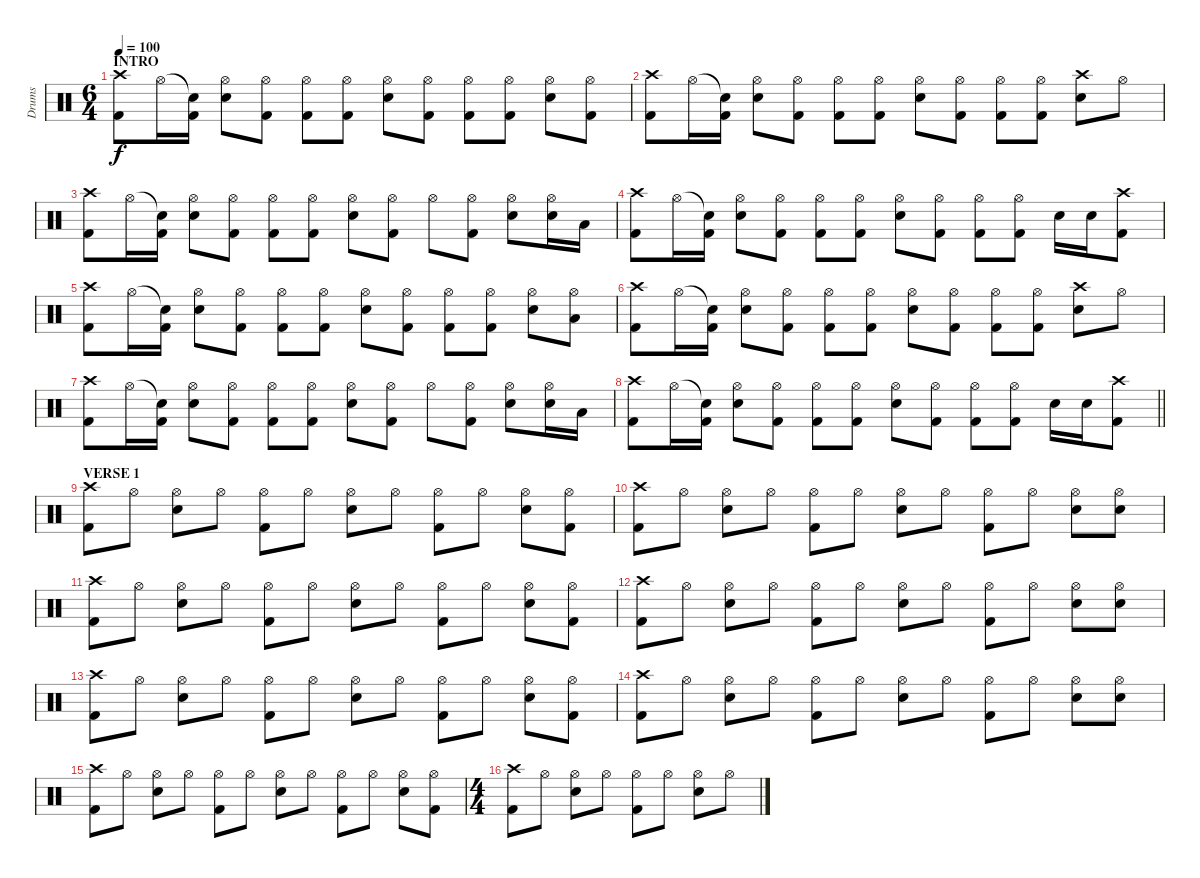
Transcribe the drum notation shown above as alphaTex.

\track ("Drums" "Drums") {instrument percussion}
\staff {score}
\articulation defaults
\ts (6 4)
\section ("" "INTRO")
\tempo 100
\clef neutral
\ks c
("Crash high (hit)" "Kick (hit) 2").8{dy f} "Hi-Hat (open)".16 ("Snare (hit)"{t} "Kick (hit) 2").16 ("Hi-Hat (open)" "Snare (hit) 2").8 ("Hi-Hat (open)" "Kick (hit) 2").8 ("Hi-Hat (open)" "Kick (hit) 2").8 ("Hi-Hat (open)" "Kick (hit) 2").8 ("Hi-Hat (open)" "Snare (hit) 2").8 ("Hi-Hat (open)" "Kick (hit) 2").8 ("Hi-Hat (open)" "Kick (hit) 2").8 ("Hi-Hat (open)" "Kick (hit) 2").8 ("Hi-Hat (open)" "Snare (hit) 2").8 ("Hi-Hat (open)" "Kick (hit) 2").8 |
("Crash high (hit)" "Kick (hit) 2").8 "Hi-Hat (open)".16 ("Snare (hit)"{t} "Kick (hit) 2").16 ("Hi-Hat (open)" "Snare (hit) 2").8 ("Hi-Hat (open)" "Kick (hit) 2").8 ("Hi-Hat (open)" "Kick (hit) 2").8 ("Hi-Hat (open)" "Kick (hit) 2").8 ("Hi-Hat (open)" "Snare (hit) 2").8 ("Hi-Hat (open)" "Kick (hit) 2").8 ("Hi-Hat (open)" "Kick (hit) 2").8 ("Hi-Hat (open)" "Kick (hit) 2").8 ("Crash high (hit)" "Snare (hit) 2").8 "Hi-Hat (open)".8 |
("Crash high (hit)" "Kick (hit) 2").8 "Hi-Hat (open)".16 ("Snare (hit)"{t} "Kick (hit) 2").16 ("Hi-Hat (open)" "Snare (hit) 2").8 ("Hi-Hat (open)" "Kick (hit) 2").8 ("Hi-Hat (open)" "Kick (hit) 2").8 ("Hi-Hat (open)" "Kick (hit) 2").8 ("Hi-Hat (open)" "Snare (hit) 2").8 ("Hi-Hat (open)" "Kick (hit) 2").8 "Hi-Hat (open)".8 ("Hi-Hat (open)" "Kick (hit) 2").8 ("Hi-Hat (open)" "Snare (hit) 2").8 ("Hi-Hat (open)" "Snare (hit) 2").16 "Low Tom (hit)".16 |
("Crash high (hit)" "Kick (hit) 2").8 "Hi-Hat (open)".16 ("Snare (hit)"{t} "Kick (hit) 2").16 ("Hi-Hat (open)" "Snare (hit) 2").8 ("Hi-Hat (open)" "Kick (hit) 2").8 ("Hi-Hat (open)" "Kick (hit) 2").8 ("Hi-Hat (open)" "Kick (hit) 2").8 ("Hi-Hat (open)" "Snare (hit) 2").8 ("Hi-Hat (open)" "Kick (hit) 2").8 ("Hi-Hat (open)" "Kick (hit) 2").8 ("Hi-Hat (open)" "Kick (hit) 2").8 "Snare (hit) 2".16 "Snare (hit) 2".16 ("Crash high (hit)" "Kick (hit) 2").8 |
("Crash high (hit)" "Kick (hit) 2").8 "Hi-Hat (open)".16 ("Snare (hit)"{t} "Kick (hit) 2").16 ("Hi-Hat (open)" "Snare (hit) 2").8 ("Hi-Hat (open)" "Kick (hit) 2").8 ("Hi-Hat (open)" "Kick (hit) 2").8 ("Hi-Hat (open)" "Kick (hit) 2").8 ("Hi-Hat (open)" "Snare (hit) 2").8 ("Hi-Hat (open)" "Kick (hit) 2").8 ("Hi-Hat (open)" "Kick (hit) 2").8 ("Hi-Hat (open)" "Kick (hit) 2").8 ("Hi-Hat (open)" "Snare (hit) 2").8 ("Hi-Hat (open)" "Low Tom (hit)").8 |
("Crash high (hit)" "Kick (hit) 2").8 "Hi-Hat (open)".16 ("Snare (hit)"{t} "Kick (hit) 2").16 ("Hi-Hat (open)" "Snare (hit) 2").8 ("Hi-Hat (open)" "Kick (hit) 2").8 ("Hi-Hat (open)" "Kick (hit) 2").8 ("Hi-Hat (open)" "Kick (hit) 2").8 ("Hi-Hat (open)" "Snare (hit) 2").8 ("Hi-Hat (open)" "Kick (hit) 2").8 ("Hi-Hat (open)" "Kick (hit) 2").8 ("Hi-Hat (open)" "Kick (hit) 2").8 ("Crash high (hit)" "Snare (hit) 2").8 "Hi-Hat (open)".8 |
("Crash high (hit)" "Kick (hit) 2").8 "Hi-Hat (open)".16 ("Snare (hit)"{t} "Kick (hit) 2").16 ("Hi-Hat (open)" "Snare (hit) 2").8 ("Hi-Hat (open)" "Kick (hit) 2").8 ("Hi-Hat (open)" "Kick (hit) 2").8 ("Hi-Hat (open)" "Kick (hit) 2").8 ("Hi-Hat (open)" "Snare (hit) 2").8 ("Hi-Hat (open)" "Kick (hit) 2").8 "Hi-Hat (open)".8 ("Hi-Hat (open)" "Kick (hit) 2").8 ("Hi-Hat (open)" "Snare (hit) 2").8 ("Hi-Hat (open)" "Snare (hit) 2").16 "Low Tom (hit)".16 |
\barLineRight lightlight
("Crash high (hit)" "Kick (hit) 2").8 "Hi-Hat (open)".16 ("Snare (hit)"{t} "Kick (hit) 2").16 ("Hi-Hat (open)" "Snare (hit) 2").8 ("Hi-Hat (open)" "Kick (hit) 2").8 ("Hi-Hat (open)" "Kick (hit) 2").8 ("Hi-Hat (open)" "Kick (hit) 2").8 ("Hi-Hat (open)" "Snare (hit) 2").8 ("Hi-Hat (open)" "Kick (hit) 2").8 ("Hi-Hat (open)" "Kick (hit) 2").8 ("Hi-Hat (open)" "Kick (hit) 2").8 "Snare (hit) 2".16 "Snare (hit) 2".16 ("Crash high (hit)" "Kick (hit) 2").8 |
\section ("" "VERSE 1")
("Crash high (hit)" "Kick (hit) 2").8 "Hi-Hat (open)".8 ("Hi-Hat (open)" "Snare (hit) 2").8 "Hi-Hat (open)".8 ("Hi-Hat (open)" "Kick (hit) 2").8 "Hi-Hat (open)".8 ("Hi-Hat (open)" "Snare (hit) 2").8 "Hi-Hat (open)".8 ("Hi-Hat (open)" "Kick (hit) 2").8 "Hi-Hat (open)".8 ("Hi-Hat (open)" "Snare (hit) 2").8 ("Hi-Hat (open)" "Kick (hit) 2").8 |
("Crash high (hit)" "Kick (hit) 2").8 "Hi-Hat (open)".8 ("Hi-Hat (open)" "Snare (hit) 2").8 "Hi-Hat (open)".8 ("Hi-Hat (open)" "Kick (hit) 2").8 "Hi-Hat (open)".8 ("Hi-Hat (open)" "Snare (hit) 2").8 "Hi-Hat (open)".8 ("Hi-Hat (open)" "Kick (hit) 2").8 "Hi-Hat (open)".8 ("Hi-Hat (open)" "Snare (hit) 2").8 ("Hi-Hat (open)" "Snare (hit) 2").8 |
("Crash high (hit)" "Kick (hit) 2").8 "Hi-Hat (open)".8 ("Hi-Hat (open)" "Snare (hit) 2").8 "Hi-Hat (open)".8 ("Hi-Hat (open)" "Kick (hit) 2").8 "Hi-Hat (open)".8 ("Hi-Hat (open)" "Snare (hit) 2").8 "Hi-Hat (open)".8 ("Hi-Hat (open)" "Kick (hit) 2").8 "Hi-Hat (open)".8 ("Hi-Hat (open)" "Snare (hit) 2").8 ("Hi-Hat (open)" "Kick (hit) 2").8 |
("Crash high (hit)" "Kick (hit) 2").8 "Hi-Hat (open)".8 ("Hi-Hat (open)" "Snare (hit) 2").8 "Hi-Hat (open)".8 ("Hi-Hat (open)" "Kick (hit) 2").8 "Hi-Hat (open)".8 ("Hi-Hat (open)" "Snare (hit) 2").8 "Hi-Hat (open)".8 ("Hi-Hat (open)" "Kick (hit) 2").8 "Hi-Hat (open)".8 ("Hi-Hat (open)" "Snare (hit) 2").8 ("Hi-Hat (open)" "Snare (hit) 2").8 |
("Crash high (hit)" "Kick (hit) 2").8 "Hi-Hat (open)".8 ("Hi-Hat (open)" "Snare (hit) 2").8 "Hi-Hat (open)".8 ("Hi-Hat (open)" "Kick (hit) 2").8 "Hi-Hat (open)".8 ("Hi-Hat (open)" "Snare (hit) 2").8 "Hi-Hat (open)".8 ("Hi-Hat (open)" "Kick (hit) 2").8 "Hi-Hat (open)".8 ("Hi-Hat (open)" "Snare (hit) 2").8 ("Hi-Hat (open)" "Kick (hit) 2").8 |
("Crash high (hit)" "Kick (hit) 2").8 "Hi-Hat (open)".8 ("Hi-Hat (open)" "Snare (hit) 2").8 "Hi-Hat (open)".8 ("Hi-Hat (open)" "Kick (hit) 2").8 "Hi-Hat (open)".8 ("Hi-Hat (open)" "Snare (hit) 2").8 "Hi-Hat (open)".8 ("Hi-Hat (open)" "Kick (hit) 2").8 "Hi-Hat (open)".8 ("Hi-Hat (open)" "Snare (hit) 2").8 ("Hi-Hat (open)" "Snare (hit) 2").8 |
("Crash high (hit)" "Kick (hit) 2").8 "Hi-Hat (open)".8 ("Hi-Hat (open)" "Snare (hit) 2").8 "Hi-Hat (open)".8 ("Hi-Hat (open)" "Kick (hit) 2").8 "Hi-Hat (open)".8 ("Hi-Hat (open)" "Snare (hit) 2").8 "Hi-Hat (open)".8 ("Hi-Hat (open)" "Kick (hit) 2").8 "Hi-Hat (open)".8 ("Hi-Hat (open)" "Snare (hit) 2").8 ("Hi-Hat (open)" "Kick (hit) 2").8 |
\ts (4 4)
("Crash high (hit)" "Kick (hit) 2").8 "Hi-Hat (open)".8 ("Hi-Hat (open)" "Snare (hit) 2").8 "Hi-Hat (open)".8 ("Hi-Hat (open)" "Kick (hit) 2").8 "Hi-Hat (open)".8 ("Hi-Hat (open)" "Snare (hit) 2").8 "Hi-Hat (open)".8
